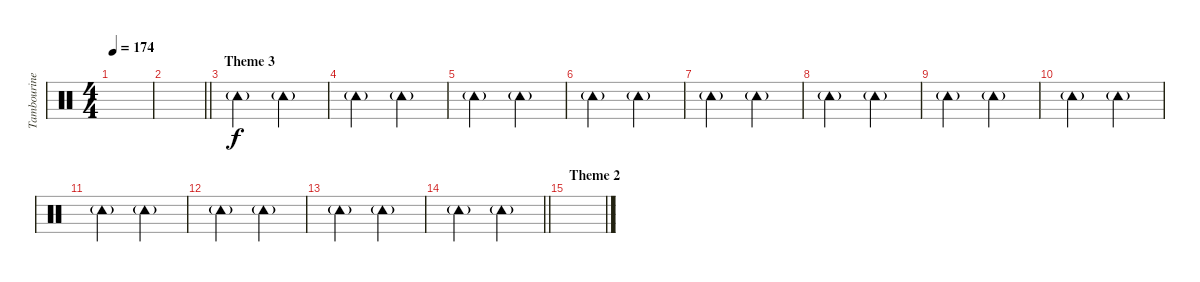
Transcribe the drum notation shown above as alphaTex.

\track ("Tambourine" "Tambourine") {instrument percussion}
\staff {score}
\articulation defaults
\ts (4 4)
\tempo 174
\clef neutral
\ks c
|
\barLineRight lightlight
|
\section ("" "Theme 3")
"Tambourine (hit)"{g}.2 "Tambourine (hit)"{g}.2 |
"Tambourine (hit)"{g}.2 "Tambourine (hit)"{g}.2 |
"Tambourine (hit)"{g}.2 "Tambourine (hit)"{g}.2 |
"Tambourine (hit)"{g}.2 "Tambourine (hit)"{g}.2 |
"Tambourine (hit)"{g}.2 "Tambourine (hit)"{g}.2 |
"Tambourine (hit)"{g}.2 "Tambourine (hit)"{g}.2 |
"Tambourine (hit)"{g}.2 "Tambourine (hit)"{g}.2 |
"Tambourine (hit)"{g}.2 "Tambourine (hit)"{g}.2 |
"Tambourine (hit)"{g}.2 "Tambourine (hit)"{g}.2 |
"Tambourine (hit)"{g}.2 "Tambourine (hit)"{g}.2 |
"Tambourine (hit)"{g}.2 "Tambourine (hit)"{g}.2 |
\barLineRight lightlight "Tambourine (hit)"{g}.2 "Tambourine (hit)"{g}.2
|
\section ("" "Theme 2")
